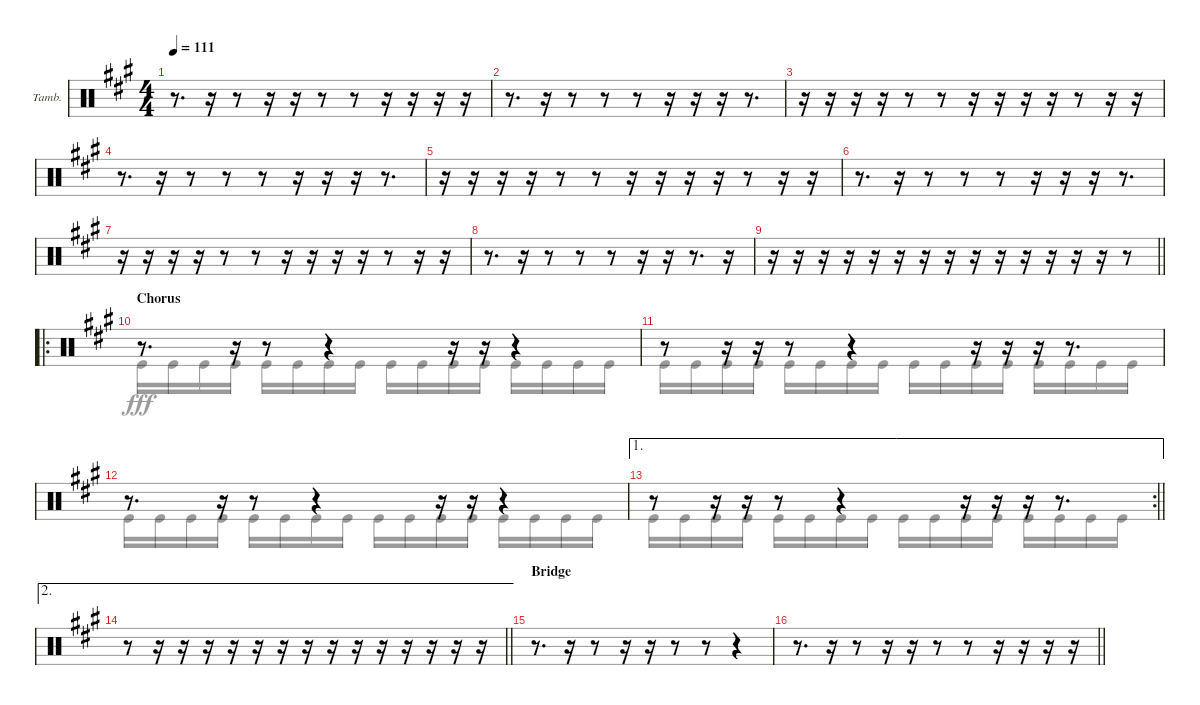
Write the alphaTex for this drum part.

\bracketExtendMode groupsimilarinstruments
\firstSystemTrackNameOrientation horizontal
\otherSystemsTrackNameOrientation horizontal
\track ("Tambourine" "Tamb.") {instrument percussion}
\staff {score}
\articulation defaults
\voice
\ts (4 4)
\tempo 111
\clef neutral
\ks a
r.8{d dy fff} r.16 r.8 r.16 r.16 r.8 r.8 r.16 r.16 r.16 r.16 |
r.8{d} r.16 r.8 r.8 r.8 r.16 r.16 r.16 r.8{d} |
r.16 r.16 r.16 r.16 r.8 r.8 r.16 r.16 r.16 r.16 r.8 r.16 r.16 |
r.8{d} r.16 r.8 r.8 r.8 r.16 r.16 r.16 r.8{d} |
r.16 r.16 r.16 r.16 r.8 r.8 r.16 r.16 r.16 r.16 r.8 r.16 r.16 |
r.8{d} r.16 r.8 r.8 r.8 r.16 r.16 r.16 r.8{d} |
r.16 r.16 r.16 r.16 r.8 r.8 r.16 r.16 r.16 r.16 r.8 r.16 r.16 |
r.8{d} r.16 r.8 r.8 r.8 r.16 r.16 r.8{d} r.16 |
\barLineRight lightlight
r.16 r.16 r.16 r.16 r.16 r.16 r.16 r.16 r.16 r.16 r.16 r.16 r.16 r.16 r.8 |
\ro
\section ("" "Chorus")
r.8{d} r.16 r.8 r.4 r.16 r.16 r.4 |
r.8 r.16 r.16 r.8 r.4 r.16 r.16 r.16 r.8{d} |
r.8{d} r.16 r.8 r.4 r.16 r.16 r.4 |
\ae 1
\rc 2
\barLineRight lightlight
r.8 r.16 r.16 r.8 r.4 r.16 r.16 r.16 r.8{d} |
\ae 2
\barLineRight lightlight
r.8 r.16{dy f} r.16 r.16{dy ff} r.16 r.16{dy fff} r.16 r.16 r.16 r.16 r.16 r.16{dy ff} r.16 r.16 r.16 |
\section ("" "Bridge")
r.8{d dy fff} r.16 r.8 r.16 r.16 r.8 r.8 r.4 |
\barLineRight lightlight
r.8{d} r.16 r.8 r.16 r.16 r.8 r.8 r.16 r.16 r.16 r.16
\voice
\clef neutral
\ottava regular
\simile none
\ks a
|
|
|
|
|
|
|
|
\barLineRight lightlight
|
"Kick (hit)".16 "Kick (hit)".16 "Kick (hit)".16 "Kick (hit)".16 "Kick (hit)".16 "Kick (hit)".16 "Kick (hit)".16 "Kick (hit)".16 "Kick (hit)".16 "Kick (hit)".16 "Kick (hit)".16 "Kick (hit)".16 "Kick (hit)".16 "Kick (hit)".16 "Kick (hit)".16 "Kick (hit)".16 |
"Kick (hit)".16 "Kick (hit)".16 "Kick (hit)".16 "Kick (hit)".16 "Kick (hit)".16 "Kick (hit)".16 "Kick (hit)".16 "Kick (hit)".16 "Kick (hit)".16 "Kick (hit)".16 "Kick (hit)".16 "Kick (hit)".16 "Kick (hit)".16 "Kick (hit)".16 "Kick (hit)".16 "Kick (hit)".16 |
"Kick (hit)".16 "Kick (hit)".16 "Kick (hit)".16 "Kick (hit)".16 "Kick (hit)".16 "Kick (hit)".16 "Kick (hit)".16 "Kick (hit)".16 "Kick (hit)".16 "Kick (hit)".16 "Kick (hit)".16 "Kick (hit)".16 "Kick (hit)".16 "Kick (hit)".16 "Kick (hit)".16 "Kick (hit)".16 |
\barLineRight lightlight "Kick (hit)".16 "Kick (hit)".16 "Kick (hit)".16 "Kick (hit)".16 "Kick (hit)".16 "Kick (hit)".16 "Kick (hit)".16 "Kick (hit)".16 "Kick (hit)".16 "Kick (hit)".16 "Kick (hit)".16 "Kick (hit)".16 "Kick (hit)".16 "Kick (hit)".16 "Kick (hit)".16 "Kick (hit)".16
|
\barLineRight lightlight
|
|
\barLineRight lightlight
